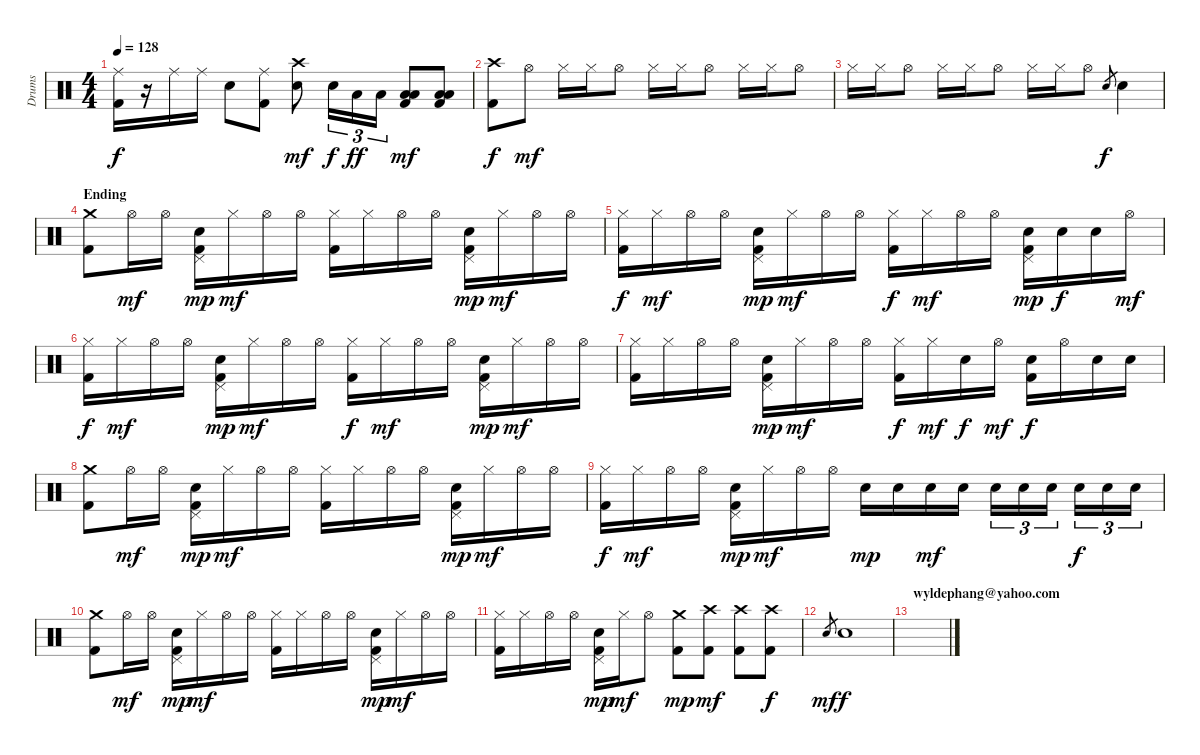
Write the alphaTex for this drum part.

\track ("Drums" "Drums") {instrument percussion}
\staff {score}
\articulation defaults
\ts (4 4)
\tempo 128
\clef neutral
\ks c
("Ride (middle)" "Kick (hit) 2").16{dy f} r.16 "Ride (middle)".16 "Ride (middle)".16 "Electric Snare (hit)".8 ("Ride (middle)" "Kick (hit) 2").8 ("Crash high (hit)" "Electric Snare (hit)").8{dy mf} "Electric Snare (hit)".16{tu (3 2) dy f} "Low Tom (hit)".16{tu (3 2) dy ff} "Low Floor Tom (hit)".16{tu (3 2)} ("Low Tom (hit)" "Low Floor Tom (hit)" "Kick (hit) 2").8{dy mf} ("Low Tom (hit)" "Low Floor Tom (hit)" "Kick (hit) 2").8 |
("Crash high (hit)" "Kick (hit) 2").8{dy f} "Hi-Hat (open)".8{dy mf} "Hi-Hat (closed)".16 "Hi-Hat (closed)".16 "Hi-Hat (open)".8 "Hi-Hat (closed)".16 "Hi-Hat (closed)".16 "Hi-Hat (open)".8 "Hi-Hat (closed)".16 "Hi-Hat (closed)".16 "Hi-Hat (open)".8 |
"Hi-Hat (closed)".16 "Hi-Hat (closed)".16 "Hi-Hat (open)".8 "Hi-Hat (closed)".16 "Hi-Hat (closed)".16 "Hi-Hat (open)".8 "Hi-Hat (closed)".16 "Hi-Hat (closed)".16 "Hi-Hat (open)".8 "Electric Snare (hit)".8{gr dy f} "Electric Snare (hit)".4 |
\section ("" "Ending")
("Crash medium (hit)" "Kick (hit) 2").8 "Hi-Hat (open)".16{dy mf} "Hi-Hat (open)".16 ("Pedal Hi-Hat (hit)" "Electric Snare (hit)" "Kick (hit) 2").16{dy mp} "Hi-Hat (closed)".16{dy mf} "Hi-Hat (open)".16 "Hi-Hat (open)".16 ("Hi-Hat (closed)" "Kick (hit) 2").16 "Hi-Hat (closed)".16 "Hi-Hat (open)".16 "Hi-Hat (open)".16 ("Pedal Hi-Hat (hit)" "Electric Snare (hit)" "Kick (hit) 2").16{dy mp} "Hi-Hat (closed)".16{dy mf} "Hi-Hat (open)".16 "Hi-Hat (open)".16 |
("Hi-Hat (closed)" "Kick (hit) 2").16{dy f} "Hi-Hat (closed)".16{dy mf} "Hi-Hat (open)".16 "Hi-Hat (open)".16 ("Pedal Hi-Hat (hit)" "Electric Snare (hit)" "Kick (hit) 2").16{dy mp} "Hi-Hat (closed)".16{dy mf} "Hi-Hat (open)".16 "Hi-Hat (open)".16 ("Hi-Hat (closed)" "Kick (hit) 2").16{dy f} "Hi-Hat (closed)".16{dy mf} "Hi-Hat (open)".16 "Hi-Hat (open)".16 ("Pedal Hi-Hat (hit)" "Electric Snare (hit)" "Kick (hit) 2").16{dy mp} "Electric Snare (hit)".16{dy f} "Electric Snare (hit)".16 "Hi-Hat (open)".16{dy mf} |
("Hi-Hat (closed)" "Kick (hit) 2").16{dy f} "Hi-Hat (closed)".16{dy mf} "Hi-Hat (open)".16 "Hi-Hat (open)".16 ("Pedal Hi-Hat (hit)" "Electric Snare (hit)" "Kick (hit) 2").16{dy mp} "Hi-Hat (closed)".16{dy mf} "Hi-Hat (open)".16 "Hi-Hat (open)".16 ("Hi-Hat (closed)" "Kick (hit) 2").16{dy f} "Hi-Hat (closed)".16{dy mf} "Hi-Hat (open)".16 "Hi-Hat (open)".16 ("Pedal Hi-Hat (hit)" "Electric Snare (hit)" "Kick (hit) 2").16{dy mp} "Hi-Hat (closed)".16{dy mf} "Hi-Hat (open)".16 "Hi-Hat (open)".16 |
("Hi-Hat (closed)" "Kick (hit) 2").16 "Hi-Hat (closed)".16 "Hi-Hat (open)".16 "Hi-Hat (open)".16 ("Pedal Hi-Hat (hit)" "Electric Snare (hit)" "Kick (hit) 2").16{dy mp} "Hi-Hat (closed)".16{dy mf} "Hi-Hat (open)".16 "Hi-Hat (open)".16 ("Hi-Hat (closed)" "Kick (hit) 2").16{dy f} "Hi-Hat (closed)".16{dy mf} "Electric Snare (hit)".16{dy f} "Hi-Hat (open)".16{dy mf} ("Electric Snare (hit)" "Kick (hit) 2").16{dy f} "Hi-Hat (open)".16 "Electric Snare (hit)".16 "Electric Snare (hit)".16 |
("Crash medium (hit)" "Kick (hit) 2").8 "Hi-Hat (open)".16{dy mf} "Hi-Hat (open)".16 ("Pedal Hi-Hat (hit)" "Electric Snare (hit)" "Kick (hit) 2").16{dy mp} "Hi-Hat (closed)".16{dy mf} "Hi-Hat (open)".16 "Hi-Hat (open)".16 ("Hi-Hat (closed)" "Kick (hit) 2").16 "Hi-Hat (closed)".16 "Hi-Hat (open)".16 "Hi-Hat (open)".16 ("Pedal Hi-Hat (hit)" "Electric Snare (hit)" "Kick (hit) 2").16{dy mp} "Hi-Hat (closed)".16{dy mf} "Hi-Hat (open)".16 "Hi-Hat (open)".16 |
("Hi-Hat (closed)" "Kick (hit) 2").16{dy f} "Hi-Hat (closed)".16{dy mf} "Hi-Hat (open)".16 "Hi-Hat (open)".16 ("Pedal Hi-Hat (hit)" "Electric Snare (hit)" "Kick (hit) 2").16{dy mp} "Hi-Hat (closed)".16{dy mf} "Hi-Hat (open)".16 "Hi-Hat (open)".16 "Electric Snare (hit)".16{dy mp} "Electric Snare (hit)".16 "Electric Snare (hit)".16{dy mf} "Electric Snare (hit)".16 "Electric Snare (hit)".16{tu (3 2)} "Electric Snare (hit)".16{tu (3 2)} "Electric Snare (hit)".16{tu (3 2)} "Electric Snare (hit)".16{tu (3 2) dy f} "Electric Snare (hit)".16{tu (3 2)} "Electric Snare (hit)".16{tu (3 2)} |
("Crash medium (hit)" "Kick (hit) 2").8 "Hi-Hat (open)".16{dy mf} "Hi-Hat (open)".16 ("Pedal Hi-Hat (hit)" "Electric Snare (hit)" "Kick (hit) 2").16{dy mp} "Hi-Hat (closed)".16{dy mf} "Hi-Hat (open)".16 "Hi-Hat (open)".16 ("Hi-Hat (closed)" "Kick (hit) 2").16 "Hi-Hat (closed)".16 "Hi-Hat (open)".16 "Hi-Hat (open)".16 ("Pedal Hi-Hat (hit)" "Electric Snare (hit)" "Kick (hit) 2").16{dy mp} "Hi-Hat (closed)".16{dy mf} "Hi-Hat (open)".16 "Hi-Hat (open)".16 |
("Hi-Hat (closed)" "Kick (hit) 2").16 "Hi-Hat (closed)".16 "Hi-Hat (open)".16 "Hi-Hat (open)".16 ("Pedal Hi-Hat (hit)" "Electric Snare (hit)" "Kick (hit) 2").16{dy mp} "Hi-Hat (closed)".16{dy mf} "Hi-Hat (open)".8 ("Crash medium (hit)" "Kick (hit) 2").8{dy mp} ("Crash high (hit)" "Kick (hit) 2").8{dy mf} ("Crash high (hit)" "Kick (hit) 2").8 ("Crash high (hit)" "Kick (hit) 2").8{dy f} |
"Electric Snare (hit)".8{gr dy mf} "Electric Snare (hit)".1{dy f} |
\section ("" "wyldephang@yahoo.com")
